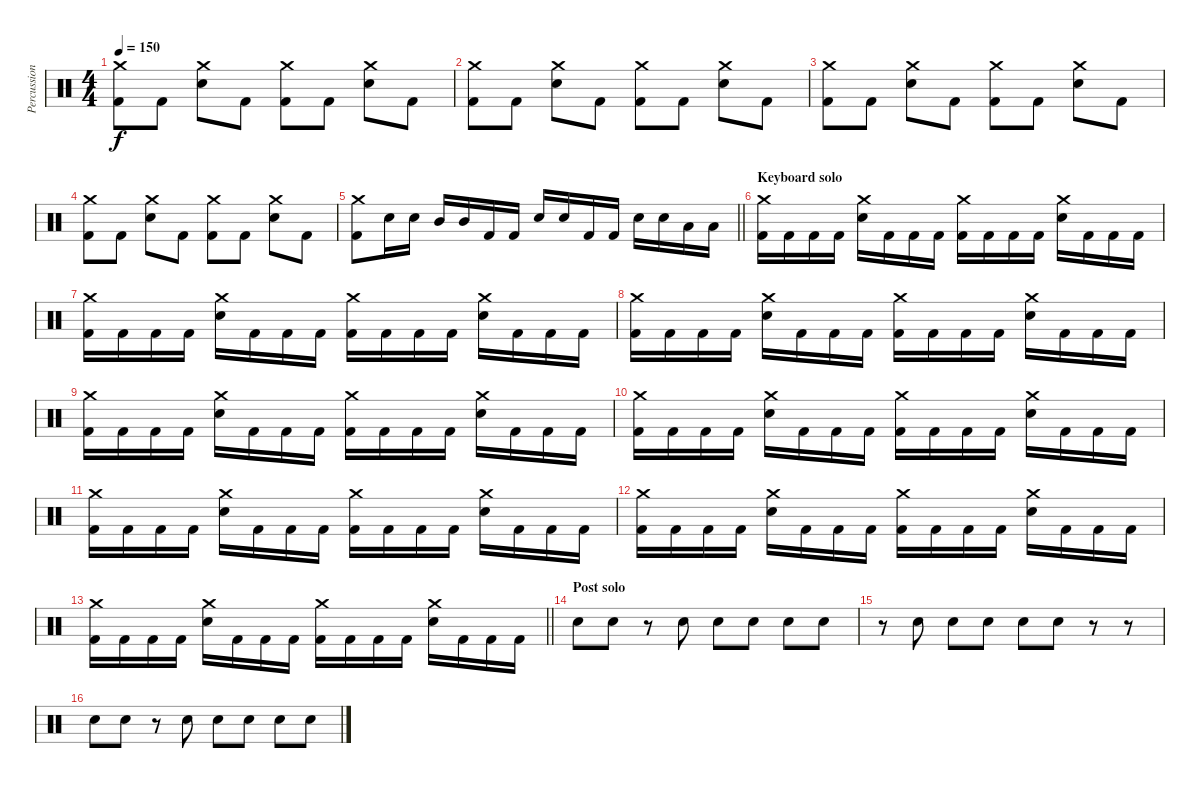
\track ("Percussion" "Percussion") {instrument percussion}
\staff {score}
\articulation defaults
\ts (4 4)
\tempo 150
\clef neutral
\ks c
("Crash medium (hit)" "Kick (hit) 2").8{dy f} "Kick (hit) 2".8 ("Crash medium (hit)" "Electric Snare (hit)").8 "Kick (hit) 2".8 ("Crash medium (hit)" "Kick (hit) 2").8 "Kick (hit) 2".8 ("Crash medium (hit)" "Electric Snare (hit)").8 "Kick (hit) 2".8 |
("Crash medium (hit)" "Kick (hit) 2").8 "Kick (hit) 2".8 ("Crash medium (hit)" "Electric Snare (hit)").8 "Kick (hit) 2".8 ("Crash medium (hit)" "Kick (hit) 2").8 "Kick (hit) 2".8 ("Crash medium (hit)" "Electric Snare (hit)").8 "Kick (hit) 2".8 |
("Crash medium (hit)" "Kick (hit) 2").8 "Kick (hit) 2".8 ("Crash medium (hit)" "Electric Snare (hit)").8 "Kick (hit) 2".8 ("Crash medium (hit)" "Kick (hit) 2").8 "Kick (hit) 2".8 ("Crash medium (hit)" "Electric Snare (hit)").8 "Kick (hit) 2".8 |
("Crash medium (hit)" "Kick (hit) 2").8 "Kick (hit) 2".8 ("Crash medium (hit)" "Electric Snare (hit)").8 "Kick (hit) 2".8 ("Crash medium (hit)" "Kick (hit) 2").8 "Kick (hit) 2".8 ("Crash medium (hit)" "Electric Snare (hit)").8 "Kick (hit) 2".8 |
\barLineRight lightlight
("Crash medium (hit)" "Kick (hit) 2").8 "Electric Snare (hit)".16 "Electric Snare (hit)".16 "Mid Tom (hit)".16 "Mid Tom (hit)".16 "Kick (hit) 2".16 "Kick (hit) 2".16 "Electric Snare (hit)".16 "Electric Snare (hit)".16 "Kick (hit) 2".16 "Kick (hit) 2".16 "Electric Snare (hit)".16 "Electric Snare (hit)".16 "Low Tom (hit)".16 "Low Tom (hit)".16 |
\section ("" "Keyboard solo")
("Crash medium (hit)" "Kick (hit) 2").16 "Kick (hit) 2".16 "Kick (hit) 2".16 "Kick (hit) 2".16 ("Crash medium (hit)" "Electric Snare (hit)").16 "Kick (hit) 2".16 "Kick (hit) 2".16 "Kick (hit) 2".16 ("Crash medium (hit)" "Kick (hit) 2").16 "Kick (hit) 2".16 "Kick (hit) 2".16 "Kick (hit) 2".16 ("Crash medium (hit)" "Electric Snare (hit)").16 "Kick (hit) 2".16 "Kick (hit) 2".16 "Kick (hit) 2".16 |
("Crash medium (hit)" "Kick (hit) 2").16 "Kick (hit) 2".16 "Kick (hit) 2".16 "Kick (hit) 2".16 ("Crash medium (hit)" "Electric Snare (hit)").16 "Kick (hit) 2".16 "Kick (hit) 2".16 "Kick (hit) 2".16 ("Crash medium (hit)" "Kick (hit) 2").16 "Kick (hit) 2".16 "Kick (hit) 2".16 "Kick (hit) 2".16 ("Crash medium (hit)" "Electric Snare (hit)").16 "Kick (hit) 2".16 "Kick (hit) 2".16 "Kick (hit) 2".16 |
("Crash medium (hit)" "Kick (hit) 2").16 "Kick (hit) 2".16 "Kick (hit) 2".16 "Kick (hit) 2".16 ("Crash medium (hit)" "Electric Snare (hit)").16 "Kick (hit) 2".16 "Kick (hit) 2".16 "Kick (hit) 2".16 ("Crash medium (hit)" "Kick (hit) 2").16 "Kick (hit) 2".16 "Kick (hit) 2".16 "Kick (hit) 2".16 ("Crash medium (hit)" "Electric Snare (hit)").16 "Kick (hit) 2".16 "Kick (hit) 2".16 "Kick (hit) 2".16 |
("Crash medium (hit)" "Kick (hit) 2").16 "Kick (hit) 2".16 "Kick (hit) 2".16 "Kick (hit) 2".16 ("Crash medium (hit)" "Electric Snare (hit)").16 "Kick (hit) 2".16 "Kick (hit) 2".16 "Kick (hit) 2".16 ("Crash medium (hit)" "Kick (hit) 2").16 "Kick (hit) 2".16 "Kick (hit) 2".16 "Kick (hit) 2".16 ("Crash medium (hit)" "Electric Snare (hit)").16 "Kick (hit) 2".16 "Kick (hit) 2".16 "Kick (hit) 2".16 |
("Crash medium (hit)" "Kick (hit) 2").16 "Kick (hit) 2".16 "Kick (hit) 2".16 "Kick (hit) 2".16 ("Crash medium (hit)" "Electric Snare (hit)").16 "Kick (hit) 2".16 "Kick (hit) 2".16 "Kick (hit) 2".16 ("Crash medium (hit)" "Kick (hit) 2").16 "Kick (hit) 2".16 "Kick (hit) 2".16 "Kick (hit) 2".16 ("Crash medium (hit)" "Electric Snare (hit)").16 "Kick (hit) 2".16 "Kick (hit) 2".16 "Kick (hit) 2".16 |
("Crash medium (hit)" "Kick (hit) 2").16 "Kick (hit) 2".16 "Kick (hit) 2".16 "Kick (hit) 2".16 ("Crash medium (hit)" "Electric Snare (hit)").16 "Kick (hit) 2".16 "Kick (hit) 2".16 "Kick (hit) 2".16 ("Crash medium (hit)" "Kick (hit) 2").16 "Kick (hit) 2".16 "Kick (hit) 2".16 "Kick (hit) 2".16 ("Crash medium (hit)" "Electric Snare (hit)").16 "Kick (hit) 2".16 "Kick (hit) 2".16 "Kick (hit) 2".16 |
("Crash medium (hit)" "Kick (hit) 2").16 "Kick (hit) 2".16 "Kick (hit) 2".16 "Kick (hit) 2".16 ("Crash medium (hit)" "Electric Snare (hit)").16 "Kick (hit) 2".16 "Kick (hit) 2".16 "Kick (hit) 2".16 ("Crash medium (hit)" "Kick (hit) 2").16 "Kick (hit) 2".16 "Kick (hit) 2".16 "Kick (hit) 2".16 ("Crash medium (hit)" "Electric Snare (hit)").16 "Kick (hit) 2".16 "Kick (hit) 2".16 "Kick (hit) 2".16 |
\barLineRight lightlight
("Crash medium (hit)" "Kick (hit) 2").16 "Kick (hit) 2".16 "Kick (hit) 2".16 "Kick (hit) 2".16 ("Crash medium (hit)" "Electric Snare (hit)").16 "Kick (hit) 2".16 "Kick (hit) 2".16 "Kick (hit) 2".16 ("Crash medium (hit)" "Kick (hit) 2").16 "Kick (hit) 2".16 "Kick (hit) 2".16 "Kick (hit) 2".16 ("Crash medium (hit)" "Electric Snare (hit)").16 "Kick (hit) 2".16 "Kick (hit) 2".16 "Kick (hit) 2".16 |
\section ("" "Post solo")
"Electric Snare (hit)".8 "Electric Snare (hit)".8 r.8 "Electric Snare (hit)".8 "Electric Snare (hit)".8 "Electric Snare (hit)".8 "Electric Snare (hit)".8 "Electric Snare (hit)".8 |
r.8 "Electric Snare (hit)".8 "Electric Snare (hit)".8 "Electric Snare (hit)".8 "Electric Snare (hit)".8 "Electric Snare (hit)".8 r.8 r.8 |
"Electric Snare (hit)".8 "Electric Snare (hit)".8 r.8 "Electric Snare (hit)".8 "Electric Snare (hit)".8 "Electric Snare (hit)".8 "Electric Snare (hit)".8 "Electric Snare (hit)".8
